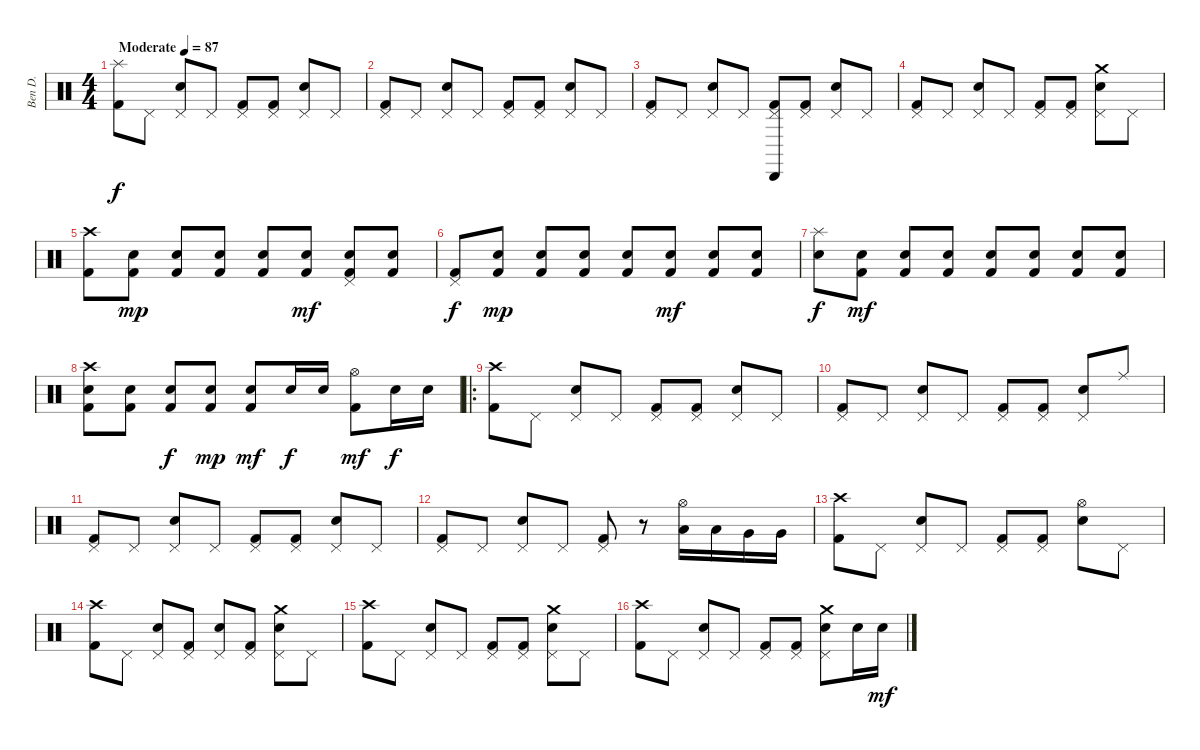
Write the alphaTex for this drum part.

\track ("Ben D." "Ben D.") {instrument percussion}
\staff {score}
\articulation defaults
\ts (4 4)
\tempo (87 "Moderate")
\clef neutral
\ks c
("Splash (hit)" "Kick (hit) 2").8{dy f} "Pedal Hi-Hat (hit)".8 ("Pedal Hi-Hat (hit)" "Electric Snare (hit)").8 "Pedal Hi-Hat (hit)".8 ("Pedal Hi-Hat (hit)" "Kick (hit) 2").8 ("Pedal Hi-Hat (hit)" "Kick (hit) 2").8 ("Pedal Hi-Hat (hit)" "Electric Snare (hit)").8 "Pedal Hi-Hat (hit)".8 |
("Pedal Hi-Hat (hit)" "Kick (hit) 2").8 "Pedal Hi-Hat (hit)".8 ("Pedal Hi-Hat (hit)" "Electric Snare (hit)").8 "Pedal Hi-Hat (hit)".8 ("Pedal Hi-Hat (hit)" "Kick (hit) 2").8 ("Pedal Hi-Hat (hit)" "Kick (hit) 2").8 ("Pedal Hi-Hat (hit)" "Electric Snare (hit)").8 "Pedal Hi-Hat (hit)".8 |
("Pedal Hi-Hat (hit)" "Kick (hit) 2").8 "Pedal Hi-Hat (hit)".8 ("Pedal Hi-Hat (hit)" "Electric Snare (hit)").8 "Pedal Hi-Hat (hit)".8 ("Cabasa (hit)" "Pedal Hi-Hat (hit)" "Kick (hit) 2").8 ("Pedal Hi-Hat (hit)" "Kick (hit) 2").8 ("Pedal Hi-Hat (hit)" "Electric Snare (hit)").8 "Pedal Hi-Hat (hit)".8 |
("Pedal Hi-Hat (hit)" "Kick (hit) 2").8 "Pedal Hi-Hat (hit)".8 ("Pedal Hi-Hat (hit)" "Electric Snare (hit)").8 "Pedal Hi-Hat (hit)".8 ("Pedal Hi-Hat (hit)" "Kick (hit) 2").8 ("Pedal Hi-Hat (hit)" "Kick (hit) 2").8 ("Crash medium (hit)" "Pedal Hi-Hat (hit)" "Electric Snare (hit)").8 "Pedal Hi-Hat (hit)".8 |
("Crash high (hit)" "Kick (hit) 2").8 ("Electric Snare (hit)" "Kick (hit) 2").8{dy mp} ("Electric Snare (hit)" "Kick (hit) 2").8 ("Electric Snare (hit)" "Kick (hit) 2").8 ("Electric Snare (hit)" "Kick (hit) 2").8 ("Electric Snare (hit)" "Kick (hit) 2").8{dy mf} ("Pedal Hi-Hat (hit)" "Electric Snare (hit)" "Kick (hit) 2").8 ("Electric Snare (hit)" "Kick (hit) 2").8 |
("Pedal Hi-Hat (hit)" "Kick (hit) 2").8{dy f} ("Electric Snare (hit)" "Kick (hit) 2").8{dy mp} ("Electric Snare (hit)" "Kick (hit) 2").8 ("Electric Snare (hit)" "Kick (hit) 2").8 ("Electric Snare (hit)" "Kick (hit) 2").8 ("Electric Snare (hit)" "Kick (hit) 2").8{dy mf} ("Electric Snare (hit)" "Kick (hit) 2").8 ("Electric Snare (hit)" "Kick (hit) 2").8 |
("Electric Snare (hit)" "Splash (hit)").8{dy f} ("Electric Snare (hit)" "Kick (hit) 2").8{dy mf} ("Electric Snare (hit)" "Kick (hit) 2").8 ("Electric Snare (hit)" "Kick (hit) 2").8 ("Electric Snare (hit)" "Kick (hit) 2").8 ("Electric Snare (hit)" "Kick (hit) 2").8 ("Electric Snare (hit)" "Kick (hit) 2").8 ("Electric Snare (hit)" "Kick (hit) 2").8 |
("Electric Snare (hit)" "Crash high (hit)" "Kick (hit) 2").8 ("Electric Snare (hit)" "Kick (hit) 2").8 ("Electric Snare (hit)" "Kick (hit) 2").8{dy f} ("Electric Snare (hit)" "Kick (hit) 2").8{dy mp} ("Electric Snare (hit)" "Kick (hit) 2").8{dy mf} "Electric Snare (hit)".16{dy f} "Electric Snare (hit)".16 ("Kick (hit) 2" "Hi-Hat (open)").8{dy mf} "Electric Snare (hit)".16{dy f} "Electric Snare (hit)".16 |
\ro
("Crash high (hit)" "Kick (hit) 2").8 "Pedal Hi-Hat (hit)".8 ("Pedal Hi-Hat (hit)" "Electric Snare (hit)").8 "Pedal Hi-Hat (hit)".8 ("Pedal Hi-Hat (hit)" "Kick (hit) 2").8 ("Pedal Hi-Hat (hit)" "Kick (hit) 2").8 ("Pedal Hi-Hat (hit)" "Electric Snare (hit)").8 "Pedal Hi-Hat (hit)".8 |
("Pedal Hi-Hat (hit)" "Kick (hit) 2").8 "Pedal Hi-Hat (hit)".8 ("Pedal Hi-Hat (hit)" "Electric Snare (hit)").8 "Pedal Hi-Hat (hit)".8 ("Pedal Hi-Hat (hit)" "Kick (hit) 2").8 ("Pedal Hi-Hat (hit)" "Kick (hit) 2").8 ("Pedal Hi-Hat (hit)" "Electric Snare (hit)").8 "Ride (middle)".8 |
("Pedal Hi-Hat (hit)" "Kick (hit) 2").8 "Pedal Hi-Hat (hit)".8 ("Pedal Hi-Hat (hit)" "Electric Snare (hit)").8 "Pedal Hi-Hat (hit)".8 ("Pedal Hi-Hat (hit)" "Kick (hit) 2").8 ("Pedal Hi-Hat (hit)" "Kick (hit) 2").8 ("Pedal Hi-Hat (hit)" "Electric Snare (hit)").8 "Pedal Hi-Hat (hit)".8 |
("Pedal Hi-Hat (hit)" "Kick (hit) 2").8 "Pedal Hi-Hat (hit)".8 ("Pedal Hi-Hat (hit)" "Electric Snare (hit)").8 "Pedal Hi-Hat (hit)".8 ("Pedal Hi-Hat (hit)" "Kick (hit) 2").8 r.8 ("Hi-Hat (open)" "Low Tom (hit)").16 "Low Tom (hit)".16 "Very Low Tom (hit)".16 "Very Low Tom (hit)".16 |
("Crash high (hit)" "Kick (hit) 2").8 "Pedal Hi-Hat (hit)".8 ("Pedal Hi-Hat (hit)" "Electric Snare (hit)").8 "Pedal Hi-Hat (hit)".8 ("Pedal Hi-Hat (hit)" "Kick (hit) 2").8 ("Pedal Hi-Hat (hit)" "Kick (hit) 2").8 ("Hi-Hat (open)" "Electric Snare (hit)").8 "Pedal Hi-Hat (hit)".8 |
("Crash high (hit)" "Kick (hit) 2").8 "Pedal Hi-Hat (hit)".8 ("Pedal Hi-Hat (hit)" "Electric Snare (hit)").8 ("Pedal Hi-Hat (hit)" "Kick (hit) 2").8 ("Pedal Hi-Hat (hit)" "Electric Snare (hit)").8 ("Pedal Hi-Hat (hit)" "Kick (hit) 2").8 ("Crash medium (hit)" "Pedal Hi-Hat (hit)" "Electric Snare (hit)").8 "Pedal Hi-Hat (hit)".8 |
("Crash high (hit)" "Kick (hit) 2").8 "Pedal Hi-Hat (hit)".8 ("Pedal Hi-Hat (hit)" "Electric Snare (hit)").8 "Pedal Hi-Hat (hit)".8 ("Pedal Hi-Hat (hit)" "Kick (hit) 2").8 ("Pedal Hi-Hat (hit)" "Kick (hit) 2").8 ("Crash medium (hit)" "Pedal Hi-Hat (hit)" "Electric Snare (hit)").8 "Pedal Hi-Hat (hit)".8 |
("Crash high (hit)" "Kick (hit) 2").8 "Pedal Hi-Hat (hit)".8 ("Pedal Hi-Hat (hit)" "Electric Snare (hit)").8 "Pedal Hi-Hat (hit)".8 ("Pedal Hi-Hat (hit)" "Kick (hit) 2").8 ("Pedal Hi-Hat (hit)" "Kick (hit) 2").8 ("Crash medium (hit)" "Pedal Hi-Hat (hit)" "Electric Snare (hit)").8 "Electric Snare (hit)".16 "Electric Snare (hit)".16{dy mf}
